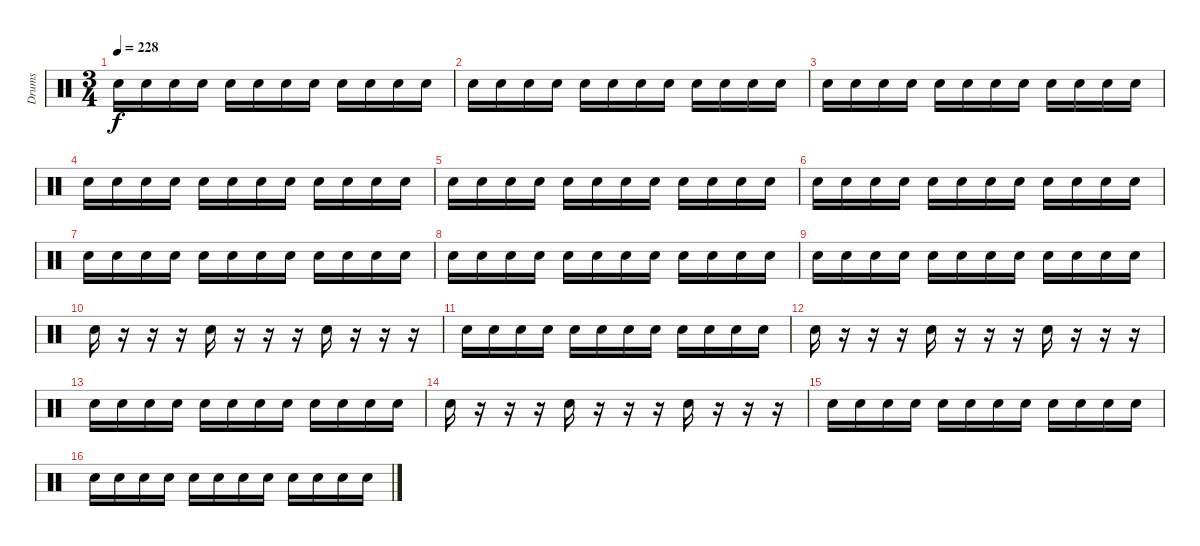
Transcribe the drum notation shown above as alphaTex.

\track ("Drums" "Drums") {instrument percussion}
\staff {score}
\articulation defaults
\ts (3 4)
\tempo 228
\clef neutral
\ks c "Snare (hit) 2".16{dy f} "Snare (hit) 2".16 "Snare (hit) 2".16 "Snare (hit) 2".16 "Snare (hit) 2".16 "Snare (hit) 2".16 "Snare (hit) 2".16 "Snare (hit) 2".16 "Snare (hit) 2".16 "Snare (hit) 2".16 "Snare (hit) 2".16 "Snare (hit) 2".16
|
"Snare (hit) 2".16 "Snare (hit) 2".16 "Snare (hit) 2".16 "Snare (hit) 2".16 "Snare (hit) 2".16 "Snare (hit) 2".16 "Snare (hit) 2".16 "Snare (hit) 2".16 "Snare (hit) 2".16 "Snare (hit) 2".16 "Snare (hit) 2".16 "Snare (hit) 2".16 |
"Snare (hit) 2".16 "Snare (hit) 2".16 "Snare (hit) 2".16 "Snare (hit) 2".16 "Snare (hit) 2".16 "Snare (hit) 2".16 "Snare (hit) 2".16 "Snare (hit) 2".16 "Snare (hit) 2".16 "Snare (hit) 2".16 "Snare (hit) 2".16 "Snare (hit) 2".16 |
"Snare (hit) 2".16 "Snare (hit) 2".16 "Snare (hit) 2".16 "Snare (hit) 2".16 "Snare (hit) 2".16 "Snare (hit) 2".16 "Snare (hit) 2".16 "Snare (hit) 2".16 "Snare (hit) 2".16 "Snare (hit) 2".16 "Snare (hit) 2".16 "Snare (hit) 2".16 |
"Snare (hit) 2".16 "Snare (hit) 2".16 "Snare (hit) 2".16 "Snare (hit) 2".16 "Snare (hit) 2".16 "Snare (hit) 2".16 "Snare (hit) 2".16 "Snare (hit) 2".16 "Snare (hit) 2".16 "Snare (hit) 2".16 "Snare (hit) 2".16 "Snare (hit) 2".16 |
"Snare (hit) 2".16 "Snare (hit) 2".16 "Snare (hit) 2".16 "Snare (hit) 2".16 "Snare (hit) 2".16 "Snare (hit) 2".16 "Snare (hit) 2".16 "Snare (hit) 2".16 "Snare (hit) 2".16 "Snare (hit) 2".16 "Snare (hit) 2".16 "Snare (hit) 2".16 |
"Snare (hit) 2".16{volume 8} "Snare (hit) 2".16 "Snare (hit) 2".16 "Snare (hit) 2".16 "Snare (hit) 2".16 "Snare (hit) 2".16 "Snare (hit) 2".16 "Snare (hit) 2".16 "Snare (hit) 2".16 "Snare (hit) 2".16 "Snare (hit) 2".16 "Snare (hit) 2".16 |
"Snare (hit) 2".16 "Snare (hit) 2".16 "Snare (hit) 2".16 "Snare (hit) 2".16 "Snare (hit) 2".16 "Snare (hit) 2".16 "Snare (hit) 2".16 "Snare (hit) 2".16 "Snare (hit) 2".16 "Snare (hit) 2".16 "Snare (hit) 2".16 "Snare (hit) 2".16 |
"Snare (hit) 2".16 "Snare (hit) 2".16 "Snare (hit) 2".16 "Snare (hit) 2".16 "Snare (hit) 2".16 "Snare (hit) 2".16 "Snare (hit) 2".16 "Snare (hit) 2".16 "Snare (hit) 2".16 "Snare (hit) 2".16 "Snare (hit) 2".16 "Snare (hit) 2".16 |
"Snare (hit) 2".16 r.16 r.16 r.16 "Snare (hit) 2".16 r.16 r.16 r.16 "Snare (hit) 2".16 r.16 r.16 r.16 |
"Snare (hit) 2".16 "Snare (hit) 2".16 "Snare (hit) 2".16 "Snare (hit) 2".16 "Snare (hit) 2".16 "Snare (hit) 2".16 "Snare (hit) 2".16 "Snare (hit) 2".16 "Snare (hit) 2".16 "Snare (hit) 2".16 "Snare (hit) 2".16 "Snare (hit) 2".16 |
"Snare (hit) 2".16 r.16 r.16 r.16 "Snare (hit) 2".16 r.16 r.16 r.16 "Snare (hit) 2".16 r.16 r.16 r.16 |
"Snare (hit) 2".16 "Snare (hit) 2".16 "Snare (hit) 2".16 "Snare (hit) 2".16 "Snare (hit) 2".16 "Snare (hit) 2".16 "Snare (hit) 2".16 "Snare (hit) 2".16 "Snare (hit) 2".16 "Snare (hit) 2".16 "Snare (hit) 2".16 "Snare (hit) 2".16 |
"Snare (hit) 2".16 r.16 r.16 r.16 "Snare (hit) 2".16 r.16 r.16 r.16 "Snare (hit) 2".16 r.16 r.16 r.16 |
"Snare (hit) 2".16 "Snare (hit) 2".16 "Snare (hit) 2".16 "Snare (hit) 2".16 "Snare (hit) 2".16 "Snare (hit) 2".16 "Snare (hit) 2".16 "Snare (hit) 2".16 "Snare (hit) 2".16 "Snare (hit) 2".16 "Snare (hit) 2".16 "Snare (hit) 2".16 |
"Snare (hit) 2".16 "Snare (hit) 2".16 "Snare (hit) 2".16 "Snare (hit) 2".16 "Snare (hit) 2".16 "Snare (hit) 2".16 "Snare (hit) 2".16 "Snare (hit) 2".16 "Snare (hit) 2".16 "Snare (hit) 2".16 "Snare (hit) 2".16 "Snare (hit) 2".16
